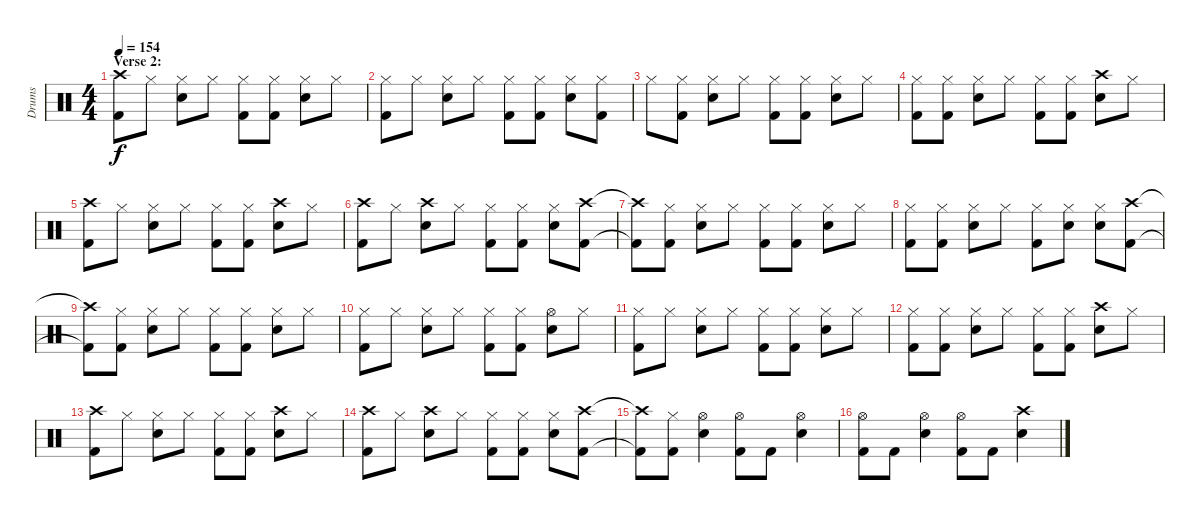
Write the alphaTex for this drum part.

\track ("Drums" "Drums") {instrument percussion}
\staff {score}
\articulation defaults
\ts (4 4)
\section ("" "Verse 2:")
\tempo 154
\clef neutral
\ks c
("Crash high (hit)" "Kick (hit) 2").8{dy f} "Hi-Hat (closed)".8 ("Hi-Hat (closed)" "Snare (hit) 2").8 "Hi-Hat (closed)".8 ("Hi-Hat (closed)" "Kick (hit) 2").8 ("Hi-Hat (closed)" "Kick (hit) 2").8 ("Hi-Hat (closed)" "Snare (hit) 2").8 "Hi-Hat (closed)".8 |
("Hi-Hat (closed)" "Kick (hit) 2").8 "Hi-Hat (closed)".8 ("Hi-Hat (closed)" "Snare (hit) 2").8 "Hi-Hat (closed)".8 ("Hi-Hat (closed)" "Kick (hit) 2").8 ("Hi-Hat (closed)" "Kick (hit) 2").8 ("Hi-Hat (closed)" "Snare (hit) 2").8 ("Hi-Hat (closed)" "Kick (hit) 2").8 |
"Hi-Hat (closed)".8 ("Hi-Hat (closed)" "Kick (hit) 2").8 ("Hi-Hat (closed)" "Snare (hit) 2").8 "Hi-Hat (closed)".8 ("Hi-Hat (closed)" "Kick (hit) 2").8 ("Hi-Hat (closed)" "Kick (hit) 2").8 ("Hi-Hat (closed)" "Snare (hit) 2").8 "Hi-Hat (closed)".8 |
("Hi-Hat (closed)" "Kick (hit) 2").8 ("Hi-Hat (closed)" "Kick (hit) 2").8 ("Hi-Hat (closed)" "Snare (hit) 2").8 "Hi-Hat (closed)".8 ("Hi-Hat (closed)" "Kick (hit) 2").8 ("Hi-Hat (closed)" "Kick (hit) 2").8 ("Crash high (hit)" "Snare (hit) 2").8 "Hi-Hat (closed)".8 |
("Crash high (hit)" "Kick (hit) 2").8 "Hi-Hat (closed)".8 ("Hi-Hat (closed)" "Snare (hit) 2").8 "Hi-Hat (closed)".8 ("Hi-Hat (closed)" "Kick (hit) 2").8 ("Hi-Hat (closed)" "Kick (hit) 2").8 ("Crash high (hit)" "Snare (hit) 2").8 "Hi-Hat (closed)".8 |
("Crash high (hit)" "Kick (hit) 2").8 "Hi-Hat (closed)".8 ("Crash high (hit)" "Snare (hit) 2").8 "Hi-Hat (closed)".8 ("Hi-Hat (closed)" "Kick (hit) 2").8 ("Hi-Hat (closed)" "Kick (hit) 2").8 ("Hi-Hat (closed)" "Snare (hit) 2").8 ("Crash high (hit)" "Kick (hit) 2").8 |
("Crash high (hit)"{t} "Kick (hit) 2"{t}).8 ("Hi-Hat (closed)" "Kick (hit) 2").8 ("Hi-Hat (closed)" "Snare (hit) 2").8 "Hi-Hat (closed)".8 ("Hi-Hat (closed)" "Kick (hit) 2").8 ("Hi-Hat (closed)" "Kick (hit) 2").8 ("Hi-Hat (closed)" "Snare (hit) 2").8 "Hi-Hat (closed)".8 |
("Hi-Hat (closed)" "Kick (hit) 2").8 ("Hi-Hat (closed)" "Kick (hit) 2").8 ("Hi-Hat (closed)" "Snare (hit) 2").8 "Hi-Hat (closed)".8 ("Hi-Hat (closed)" "Kick (hit) 2").8 ("Hi-Hat (closed)" "Snare (hit) 2").8 ("Hi-Hat (closed)" "Snare (hit) 2").8 ("Crash high (hit)" "Kick (hit) 2").8 |
("Crash high (hit)"{t} "Kick (hit) 2"{t}).8 ("Hi-Hat (closed)" "Kick (hit) 2").8 ("Hi-Hat (closed)" "Snare (hit) 2").8 "Hi-Hat (closed)".8 ("Hi-Hat (closed)" "Kick (hit) 2").8 ("Hi-Hat (closed)" "Kick (hit) 2").8 ("Hi-Hat (closed)" "Snare (hit) 2").8 "Hi-Hat (closed)".8 |
("Hi-Hat (closed)" "Kick (hit) 2").8 "Hi-Hat (closed)".8 ("Hi-Hat (closed)" "Snare (hit) 2").8 "Hi-Hat (closed)".8 ("Hi-Hat (closed)" "Kick (hit) 2").8 ("Hi-Hat (closed)" "Kick (hit) 2").8 ("Hi-Hat (open)" "Snare (hit) 2").8 "Hi-Hat (closed)".8 |
("Hi-Hat (closed)" "Kick (hit) 2").8 "Hi-Hat (closed)".8 ("Hi-Hat (closed)" "Snare (hit) 2").8 "Hi-Hat (closed)".8 ("Hi-Hat (closed)" "Kick (hit) 2").8 ("Hi-Hat (closed)" "Kick (hit) 2").8 ("Hi-Hat (closed)" "Snare (hit) 2").8 "Hi-Hat (closed)".8 |
("Hi-Hat (closed)" "Kick (hit) 2").8 ("Hi-Hat (closed)" "Kick (hit) 2").8 ("Hi-Hat (closed)" "Snare (hit) 2").8 "Hi-Hat (closed)".8 ("Hi-Hat (closed)" "Kick (hit) 2").8 ("Hi-Hat (closed)" "Kick (hit) 2").8 ("Crash high (hit)" "Snare (hit) 2").8 "Hi-Hat (closed)".8 |
("Crash high (hit)" "Kick (hit) 2").8 "Hi-Hat (closed)".8 ("Hi-Hat (closed)" "Snare (hit) 2").8 "Hi-Hat (closed)".8 ("Hi-Hat (closed)" "Kick (hit) 2").8 ("Hi-Hat (closed)" "Kick (hit) 2").8 ("Crash high (hit)" "Snare (hit) 2").8 "Hi-Hat (closed)".8 |
("Crash high (hit)" "Kick (hit) 2").8 "Hi-Hat (closed)".8 ("Crash high (hit)" "Snare (hit) 2").8 "Hi-Hat (closed)".8 ("Hi-Hat (closed)" "Kick (hit) 2").8 ("Hi-Hat (closed)" "Kick (hit) 2").8 ("Hi-Hat (closed)" "Snare (hit) 2").8 ("Crash high (hit)" "Kick (hit) 2").8 |
("Crash high (hit)"{t} "Kick (hit) 2"{t}).8 ("Hi-Hat (closed)" "Kick (hit) 2").8 ("Hi-Hat (open)" "Snare (hit) 2").4 ("Hi-Hat (open)" "Kick (hit) 2").8 "Kick (hit) 2".8 ("Hi-Hat (open)" "Snare (hit) 2").4 |
("Hi-Hat (open)" "Kick (hit) 2").8 "Kick (hit) 2".8 ("Hi-Hat (open)" "Snare (hit) 2").4 ("Hi-Hat (open)" "Kick (hit) 2").8 "Kick (hit) 2".8 ("Crash high (hit)" "Snare (hit) 2").4
